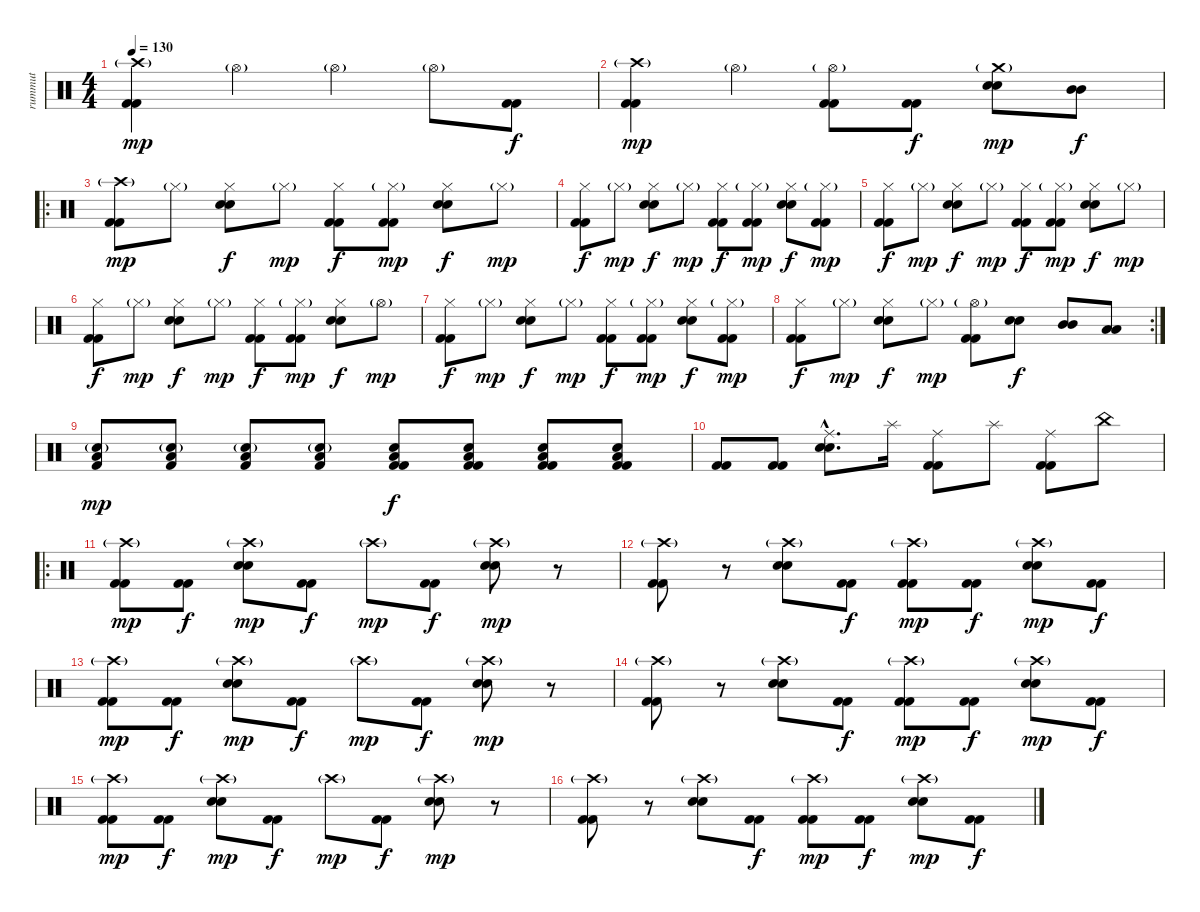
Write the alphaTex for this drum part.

\track ("rummut" "rummut") {instrument percussion}
\staff {score}
\articulation defaults
\ts (4 4)
\tempo 130
\clef neutral
\ks c
("Crash high (hit)"{g} "Kick (hit) 2" "Kick (hit) 2").4{dy mp} "Hi-Hat (open)"{g}.4 "Hi-Hat (open)"{g}.4 "Hi-Hat (open)"{g}.8 ("Kick (hit) 2" "Kick (hit) 2").8{dy f} |
("Crash high (hit)"{g} "Kick (hit) 2" "Kick (hit) 2").4{dy mp} "Hi-Hat (open)"{g}.4 ("Hi-Hat (open)"{g} "Kick (hit) 2" "Kick (hit) 2").8 ("Kick (hit) 2" "Kick (hit) 2").8{dy f} ("Crash medium (hit)"{g} "Electric Snare (hit)" "Electric Snare (hit)").8{dy mp} ("Mid Tom (hit)" "Mid Tom (hit)").8{dy f} |
\ro
("Crash high (hit)"{g} "Kick (hit) 2" "Kick (hit) 2").8{dy mp} "Hi-Hat (closed)"{g}.8 ("Hi-Hat (closed)" "Electric Snare (hit)" "Electric Snare (hit)").8{dy f} "Hi-Hat (closed)"{g}.8{dy mp} ("Hi-Hat (closed)" "Kick (hit) 2" "Kick (hit) 2").8{dy f} ("Hi-Hat (closed)"{g} "Kick (hit) 2" "Kick (hit) 2").8{dy mp} ("Hi-Hat (closed)" "Electric Snare (hit)" "Electric Snare (hit)").8{dy f} "Hi-Hat (closed)"{g}.8{dy mp} |
("Hi-Hat (closed)" "Kick (hit) 2" "Kick (hit) 2").8{dy f} "Hi-Hat (closed)"{g}.8{dy mp} ("Hi-Hat (closed)" "Electric Snare (hit)" "Electric Snare (hit)").8{dy f} "Hi-Hat (closed)"{g}.8{dy mp} ("Hi-Hat (closed)" "Kick (hit) 2" "Kick (hit) 2").8{dy f} ("Hi-Hat (closed)"{g} "Kick (hit) 2" "Kick (hit) 2").8{dy mp} ("Hi-Hat (closed)" "Electric Snare (hit)" "Electric Snare (hit)").8{dy f} ("Hi-Hat (closed)"{g} "Kick (hit) 2" "Kick (hit) 2").8{dy mp} |
("Hi-Hat (closed)" "Kick (hit) 2" "Kick (hit) 2").8{dy f} "Hi-Hat (closed)"{g}.8{dy mp} ("Hi-Hat (closed)" "Electric Snare (hit)" "Electric Snare (hit)").8{dy f} "Hi-Hat (closed)"{g}.8{dy mp} ("Hi-Hat (closed)" "Kick (hit) 2" "Kick (hit) 2").8{dy f} ("Hi-Hat (closed)"{g} "Kick (hit) 2" "Kick (hit) 2").8{dy mp} ("Hi-Hat (closed)" "Electric Snare (hit)" "Electric Snare (hit)").8{dy f} "Hi-Hat (closed)"{g}.8{dy mp} |
("Hi-Hat (closed)" "Kick (hit) 2" "Kick (hit) 2").8{dy f} "Hi-Hat (closed)"{g}.8{dy mp} ("Hi-Hat (closed)" "Electric Snare (hit)" "Electric Snare (hit)").8{dy f} "Hi-Hat (closed)"{g}.8{dy mp} ("Hi-Hat (closed)" "Kick (hit) 2" "Kick (hit) 2").8{dy f} ("Hi-Hat (closed)"{g} "Kick (hit) 2" "Kick (hit) 2").8{dy mp} ("Hi-Hat (closed)" "Electric Snare (hit)" "Electric Snare (hit)").8{dy f} "Hi-Hat (open)"{g}.8{dy mp} |
("Hi-Hat (closed)" "Kick (hit) 2" "Kick (hit) 2").8{dy f} "Hi-Hat (closed)"{g}.8{dy mp} ("Hi-Hat (closed)" "Electric Snare (hit)" "Electric Snare (hit)").8{dy f} "Hi-Hat (closed)"{g}.8{dy mp} ("Hi-Hat (closed)" "Kick (hit) 2" "Kick (hit) 2").8{dy f} ("Hi-Hat (closed)"{g} "Kick (hit) 2" "Kick (hit) 2").8{dy mp} ("Hi-Hat (closed)" "Electric Snare (hit)" "Electric Snare (hit)").8{dy f} ("Hi-Hat (closed)"{g} "Kick (hit) 2" "Kick (hit) 2").8{dy mp} |
\rc 2
("Hi-Hat (closed)" "Kick (hit) 2" "Kick (hit) 2").8{dy f} "Hi-Hat (closed)"{g}.8{dy mp} ("Hi-Hat (closed)" "Electric Snare (hit)" "Electric Snare (hit)").8{dy f} "Hi-Hat (closed)"{g}.8{dy mp} ("Hi-Hat (open)"{g} "Kick (hit) 2" "Kick (hit) 2").8 ("Electric Snare (hit)" "Electric Snare (hit)").8{dy f} ("Mid Tom (hit)" "Mid Tom (hit)").8 ("Low Tom (hit)" "Low Tom (hit)").8 |
("Electric Snare (hit)"{g} "Low Tom (hit)" "Kick (hit) 2").8{dy mp} ("Electric Snare (hit)"{g} "Low Tom (hit)" "Kick (hit) 2").8 ("Electric Snare (hit)"{g} "Low Tom (hit)" "Kick (hit) 2").8 ("Electric Snare (hit)"{g} "Low Tom (hit)" "Kick (hit) 2").8 ("Electric Snare (hit)" "Low Tom (hit)" "Kick (hit) 2" "Kick (hit) 2").8{dy f} ("Electric Snare (hit)" "Low Tom (hit)" "Kick (hit) 2" "Kick (hit) 2").8 ("Electric Snare (hit)" "Low Tom (hit)" "Kick (hit) 2" "Kick (hit) 2").8 ("Electric Snare (hit)" "Low Tom (hit)" "Kick (hit) 2" "Kick (hit) 2").8 |
("Kick (hit) 2" "Kick (hit) 2").8 ("Kick (hit) 2" "Kick (hit) 2").8 ("Ride (middle)"{hac} "Electric Snare (hit)"{hac} "Electric Snare (hit)"{hac}).8{d} "Splash (hit)".16 ("Ride (middle)" "Kick (hit) 2" "Kick (hit) 2").8 "Splash (hit)".8 ("Ride (middle)" "Kick (hit) 2" "Kick (hit) 2").8 "China (hit)".8 |
\ro
("Crash high (hit)"{g} "Kick (hit) 2" "Kick (hit) 2").8{dy mp} ("Kick (hit) 2" "Kick (hit) 2").8{dy f} ("Crash high (hit)"{g} "Electric Snare (hit)" "Electric Snare (hit)").8{dy mp} ("Kick (hit) 2" "Kick (hit) 2").8{dy f} "Crash high (hit)"{g}.8{dy mp} ("Kick (hit) 2" "Kick (hit) 2").8{dy f} ("Crash high (hit)"{g} "Electric Snare (hit)" "Electric Snare (hit)").8{dy mp} r.8 |
("Crash high (hit)"{g} "Kick (hit) 2" "Kick (hit) 2").8 r.8 ("Crash high (hit)"{g} "Electric Snare (hit)" "Electric Snare (hit)").8 ("Kick (hit) 2" "Kick (hit) 2").8{dy f} ("Crash high (hit)"{g} "Kick (hit) 2" "Kick (hit) 2").8{dy mp} ("Kick (hit) 2" "Kick (hit) 2").8{dy f} ("Crash high (hit)"{g} "Electric Snare (hit)" "Electric Snare (hit)").8{dy mp} ("Kick (hit) 2" "Kick (hit) 2").8{dy f} |
("Crash high (hit)"{g} "Kick (hit) 2" "Kick (hit) 2").8{dy mp} ("Kick (hit) 2" "Kick (hit) 2").8{dy f} ("Crash high (hit)"{g} "Electric Snare (hit)" "Electric Snare (hit)").8{dy mp} ("Kick (hit) 2" "Kick (hit) 2").8{dy f} "Crash high (hit)"{g}.8{dy mp} ("Kick (hit) 2" "Kick (hit) 2").8{dy f} ("Crash high (hit)"{g} "Electric Snare (hit)" "Electric Snare (hit)").8{dy mp} r.8 |
("Crash high (hit)"{g} "Kick (hit) 2" "Kick (hit) 2").8 r.8 ("Crash high (hit)"{g} "Electric Snare (hit)" "Electric Snare (hit)").8 ("Kick (hit) 2" "Kick (hit) 2").8{dy f} ("Crash high (hit)"{g} "Kick (hit) 2" "Kick (hit) 2").8{dy mp} ("Kick (hit) 2" "Kick (hit) 2").8{dy f} ("Crash high (hit)"{g} "Electric Snare (hit)" "Electric Snare (hit)").8{dy mp} ("Kick (hit) 2" "Kick (hit) 2").8{dy f} |
("Crash high (hit)"{g} "Kick (hit) 2" "Kick (hit) 2").8{dy mp} ("Kick (hit) 2" "Kick (hit) 2").8{dy f} ("Crash high (hit)"{g} "Electric Snare (hit)" "Electric Snare (hit)").8{dy mp} ("Kick (hit) 2" "Kick (hit) 2").8{dy f} "Crash high (hit)"{g}.8{dy mp} ("Kick (hit) 2" "Kick (hit) 2").8{dy f} ("Crash high (hit)"{g} "Electric Snare (hit)" "Electric Snare (hit)").8{dy mp} r.8 |
("Crash high (hit)"{g} "Kick (hit) 2" "Kick (hit) 2").8 r.8 ("Crash high (hit)"{g} "Electric Snare (hit)" "Electric Snare (hit)").8 ("Kick (hit) 2" "Kick (hit) 2").8{dy f} ("Crash high (hit)"{g} "Kick (hit) 2" "Kick (hit) 2").8{dy mp} ("Kick (hit) 2" "Kick (hit) 2").8{dy f} ("Crash high (hit)"{g} "Electric Snare (hit)" "Electric Snare (hit)").8{dy mp} ("Kick (hit) 2" "Kick (hit) 2").8{dy f}
